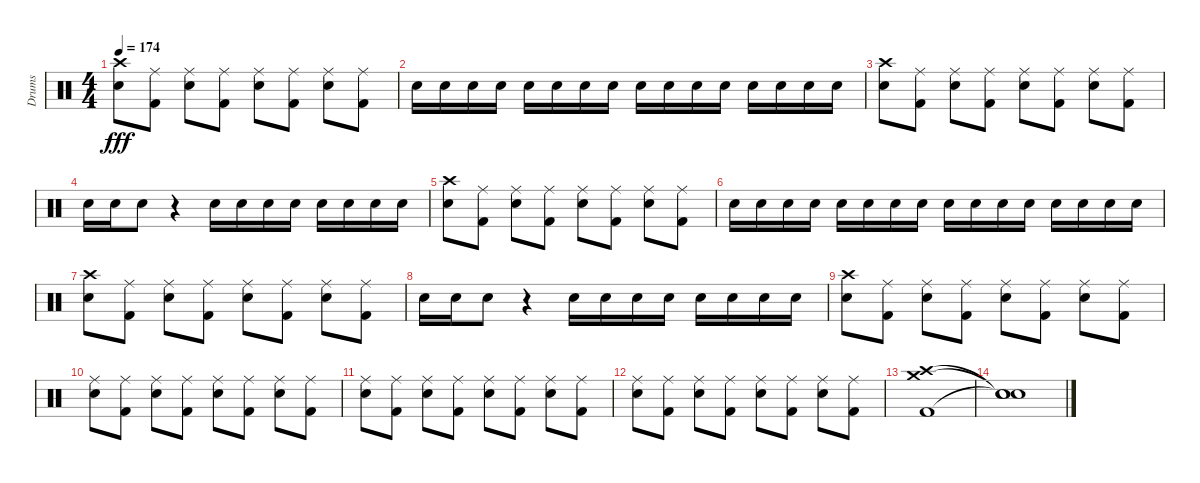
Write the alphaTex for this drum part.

\track ("Drums" "Drums") {instrument percussion}
\staff {score}
\articulation defaults
\ts (4 4)
\tempo 174
\clef neutral
\ks c
("Crash high (hit)" "Electric Snare (hit)").8{dy fff} ("Ride (middle)" "Kick (hit) 2").8 ("Ride (middle)" "Electric Snare (hit)").8 ("Ride (middle)" "Kick (hit) 2").8 ("Ride (middle)" "Electric Snare (hit)").8 ("Ride (middle)" "Kick (hit) 2").8 ("Ride (middle)" "Electric Snare (hit)").8 ("Ride (middle)" "Kick (hit) 2").8 |
"Electric Snare (hit)".16 "Electric Snare (hit)".16 "Electric Snare (hit)".16 "Electric Snare (hit)".16 "Electric Snare (hit)".16 "Electric Snare (hit)".16 "Electric Snare (hit)".16 "Electric Snare (hit)".16 "Electric Snare (hit)".16 "Electric Snare (hit)".16 "Electric Snare (hit)".16 "Electric Snare (hit)".16 "Electric Snare (hit)".16 "Electric Snare (hit)".16 "Electric Snare (hit)".16 "Electric Snare (hit)".16 |
("Crash high (hit)" "Electric Snare (hit)").8 ("Ride (middle)" "Kick (hit) 2").8 ("Ride (middle)" "Electric Snare (hit)").8 ("Ride (middle)" "Kick (hit) 2").8 ("Ride (middle)" "Electric Snare (hit)").8 ("Ride (middle)" "Kick (hit) 2").8 ("Ride (middle)" "Electric Snare (hit)").8 ("Ride (middle)" "Kick (hit) 2").8 |
"Electric Snare (hit)".16 "Electric Snare (hit)".16 "Electric Snare (hit)".8 r.4 "Electric Snare (hit)".16 "Electric Snare (hit)".16 "Electric Snare (hit)".16 "Electric Snare (hit)".16 "Electric Snare (hit)".16 "Electric Snare (hit)".16 "Electric Snare (hit)".16 "Electric Snare (hit)".16 |
("Crash high (hit)" "Electric Snare (hit)").8 ("Ride (middle)" "Kick (hit) 2").8 ("Ride (middle)" "Electric Snare (hit)").8 ("Ride (middle)" "Kick (hit) 2").8 ("Ride (middle)" "Electric Snare (hit)").8 ("Ride (middle)" "Kick (hit) 2").8 ("Ride (middle)" "Electric Snare (hit)").8 ("Ride (middle)" "Kick (hit) 2").8 |
"Electric Snare (hit)".16 "Electric Snare (hit)".16 "Electric Snare (hit)".16 "Electric Snare (hit)".16 "Electric Snare (hit)".16 "Electric Snare (hit)".16 "Electric Snare (hit)".16 "Electric Snare (hit)".16 "Electric Snare (hit)".16 "Electric Snare (hit)".16 "Electric Snare (hit)".16 "Electric Snare (hit)".16 "Electric Snare (hit)".16 "Electric Snare (hit)".16 "Electric Snare (hit)".16 "Electric Snare (hit)".16 |
("Crash high (hit)" "Electric Snare (hit)").8 ("Ride (middle)" "Kick (hit) 2").8 ("Ride (middle)" "Electric Snare (hit)").8 ("Ride (middle)" "Kick (hit) 2").8 ("Ride (middle)" "Electric Snare (hit)").8 ("Ride (middle)" "Kick (hit) 2").8 ("Ride (middle)" "Electric Snare (hit)").8 ("Ride (middle)" "Kick (hit) 2").8 |
"Electric Snare (hit)".16 "Electric Snare (hit)".16 "Electric Snare (hit)".8 r.4 "Electric Snare (hit)".16 "Electric Snare (hit)".16 "Electric Snare (hit)".16 "Electric Snare (hit)".16 "Electric Snare (hit)".16 "Electric Snare (hit)".16 "Electric Snare (hit)".16 "Electric Snare (hit)".16 |
("Crash high (hit)" "Electric Snare (hit)").8 ("Ride (middle)" "Kick (hit) 2").8 ("Ride (middle)" "Electric Snare (hit)").8 ("Ride (middle)" "Kick (hit) 2").8 ("Ride (middle)" "Electric Snare (hit)").8 ("Ride (middle)" "Kick (hit) 2").8 ("Ride (middle)" "Electric Snare (hit)").8 ("Ride (middle)" "Kick (hit) 2").8 |
("Ride (middle)" "Electric Snare (hit)").8 ("Ride (middle)" "Kick (hit) 2").8 ("Ride (middle)" "Electric Snare (hit)").8 ("Ride (middle)" "Kick (hit) 2").8 ("Ride (middle)" "Electric Snare (hit)").8 ("Ride (middle)" "Kick (hit) 2").8 ("Ride (middle)" "Electric Snare (hit)").8 ("Ride (middle)" "Kick (hit) 2").8 |
("Ride (middle)" "Electric Snare (hit)").8 ("Ride (middle)" "Kick (hit) 2").8 ("Ride (middle)" "Electric Snare (hit)").8 ("Ride (middle)" "Kick (hit) 2").8 ("Ride (middle)" "Electric Snare (hit)").8 ("Ride (middle)" "Kick (hit) 2").8 ("Ride (middle)" "Electric Snare (hit)").8 ("Ride (middle)" "Kick (hit) 2").8 |
("Ride (middle)" "Electric Snare (hit)").8 ("Ride (middle)" "Kick (hit) 2").8 ("Ride (middle)" "Electric Snare (hit)").8 ("Ride (middle)" "Kick (hit) 2").8 ("Ride (middle)" "Electric Snare (hit)").8 ("Ride (middle)" "Kick (hit) 2").8 ("Ride (middle)" "Electric Snare (hit)").8 ("Ride (middle)" "Kick (hit) 2").8 |
("Crash high (hit)" "Crash medium (hit)" "Kick (hit) 2").1 |
("Snare (hit)"{t} "Snare (hit)"{t} "Snare (hit)"{t}).1
